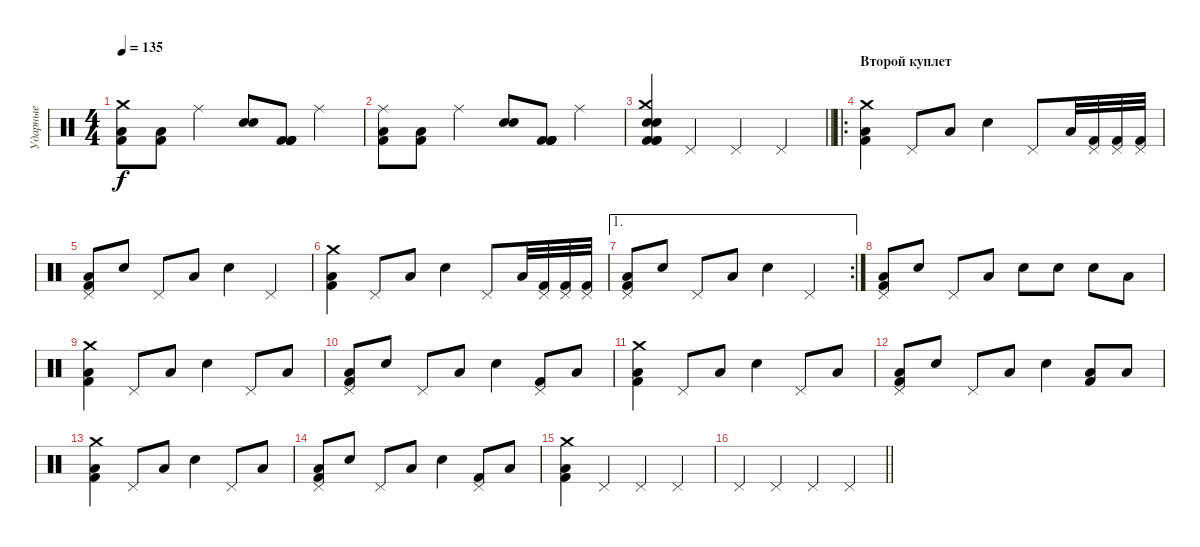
\track ("Ударные" "Ударные") {instrument percussion}
\staff {score}
\articulation defaults
\ts (4 4)
\tempo 135
\clef neutral
\ks c
("Kick (hit) 2" "Low Floor Tom (hit)" "Crash medium (hit)").8{dy f} ("Kick (hit) 2" "Low Floor Tom (hit)").8 "Ride (middle)".4 ("Electric Snare (hit)" "Snare (hit) 2").8 ("Kick (hit) 2" "Kick (hit) 2" "Kick (hit) 2" "Kick (hit) 2").8 "Ride (middle)".4 |
("Kick (hit) 2" "Low Floor Tom (hit)" "Ride (middle)").8 ("Kick (hit) 2" "Low Floor Tom (hit)").8 "Ride (middle)".4 ("Electric Snare (hit)" "Snare (hit) 2").8 ("Kick (hit) 2" "Kick (hit) 2" "Kick (hit) 2" "Kick (hit) 2").8 "Ride (middle)".4 |
\barLineRight lightlight
("Electric Snare (hit)" "Crash medium (hit)" "Snare (hit) 2" "Kick (hit) 2" "Kick (hit) 2" "Kick (hit) 2").4 "Pedal Hi-Hat (hit)".4 "Pedal Hi-Hat (hit)".4 "Pedal Hi-Hat (hit)".4 |
\ro
\section ("" "Второй куплет")
("Low Floor Tom (hit)" "Kick (hit) 2" "Crash medium (hit)").4 "Pedal Hi-Hat (hit)".8 "Low Floor Tom (hit)".8 "Electric Snare (hit)".4 "Pedal Hi-Hat (hit)".8 "Low Floor Tom (hit)".32 ("Kick (hit) 2" "Pedal Hi-Hat (hit)").32 ("Kick (hit) 2" "Pedal Hi-Hat (hit)").32 ("Kick (hit) 2" "Pedal Hi-Hat (hit)").32 |
("Low Floor Tom (hit)" "Kick (hit) 2" "Pedal Hi-Hat (hit)").8 "Electric Snare (hit)".8 "Pedal Hi-Hat (hit)".8 "Low Floor Tom (hit)".8 "Electric Snare (hit)".4 "Pedal Hi-Hat (hit)".4 |
("Low Floor Tom (hit)" "Kick (hit) 2" "Crash medium (hit)").4 "Pedal Hi-Hat (hit)".8 "Low Floor Tom (hit)".8 "Electric Snare (hit)".4 "Pedal Hi-Hat (hit)".8 "Low Floor Tom (hit)".32 ("Kick (hit) 2" "Pedal Hi-Hat (hit)").32 ("Kick (hit) 2" "Pedal Hi-Hat (hit)").32 ("Kick (hit) 2" "Pedal Hi-Hat (hit)").32 |
\ae 1
\rc 2
("Low Floor Tom (hit)" "Kick (hit) 2" "Pedal Hi-Hat (hit)").8 "Electric Snare (hit)".8 "Pedal Hi-Hat (hit)".8 "Low Floor Tom (hit)".8 "Electric Snare (hit)".4 "Pedal Hi-Hat (hit)".4 |
("Low Floor Tom (hit)" "Kick (hit) 2" "Pedal Hi-Hat (hit)").8 "Electric Snare (hit)".8 "Pedal Hi-Hat (hit)".8 "Low Floor Tom (hit)".8 "Electric Snare (hit)".8 "Electric Snare (hit)".8 "Electric Snare (hit)".8 "Low Floor Tom (hit)".8 |
("Low Floor Tom (hit)" "Kick (hit) 2" "Crash medium (hit)").4 "Pedal Hi-Hat (hit)".8 "Low Floor Tom (hit)".8 "Electric Snare (hit)".4 "Pedal Hi-Hat (hit)".8 "Low Floor Tom (hit)".8 |
("Low Floor Tom (hit)" "Kick (hit) 2" "Pedal Hi-Hat (hit)").8 "Electric Snare (hit)".8 "Pedal Hi-Hat (hit)".8 "Low Floor Tom (hit)".8 "Electric Snare (hit)".4 ("Pedal Hi-Hat (hit)" "Kick (hit) 2").8 "Low Floor Tom (hit)".8 |
("Low Floor Tom (hit)" "Kick (hit) 2" "Crash medium (hit)").4 "Pedal Hi-Hat (hit)".8 "Low Floor Tom (hit)".8 "Electric Snare (hit)".4 "Pedal Hi-Hat (hit)".8 "Low Floor Tom (hit)".8 |
("Low Floor Tom (hit)" "Kick (hit) 2" "Pedal Hi-Hat (hit)").8 "Electric Snare (hit)".8 "Pedal Hi-Hat (hit)".8 "Low Floor Tom (hit)".8 "Electric Snare (hit)".4 ("Low Floor Tom (hit)" "Kick (hit) 2").8 "Low Floor Tom (hit)".8 |
("Low Floor Tom (hit)" "Kick (hit) 2" "Crash medium (hit)").4 "Pedal Hi-Hat (hit)".8 "Low Floor Tom (hit)".8 "Electric Snare (hit)".4 "Pedal Hi-Hat (hit)".8 "Low Floor Tom (hit)".8 |
("Low Floor Tom (hit)" "Kick (hit) 2" "Pedal Hi-Hat (hit)").8 "Electric Snare (hit)".8 "Pedal Hi-Hat (hit)".8 "Low Floor Tom (hit)".8 "Electric Snare (hit)".4 ("Pedal Hi-Hat (hit)" "Kick (hit) 2").8 "Low Floor Tom (hit)".8 |
("Low Floor Tom (hit)" "Kick (hit) 2" "Crash medium (hit)").4 "Pedal Hi-Hat (hit)".4 "Pedal Hi-Hat (hit)".4 "Pedal Hi-Hat (hit)".4 |
\barLineRight lightlight "Pedal Hi-Hat (hit)".4 "Pedal Hi-Hat (hit)".4 "Pedal Hi-Hat (hit)".4 "Pedal Hi-Hat (hit)".4
